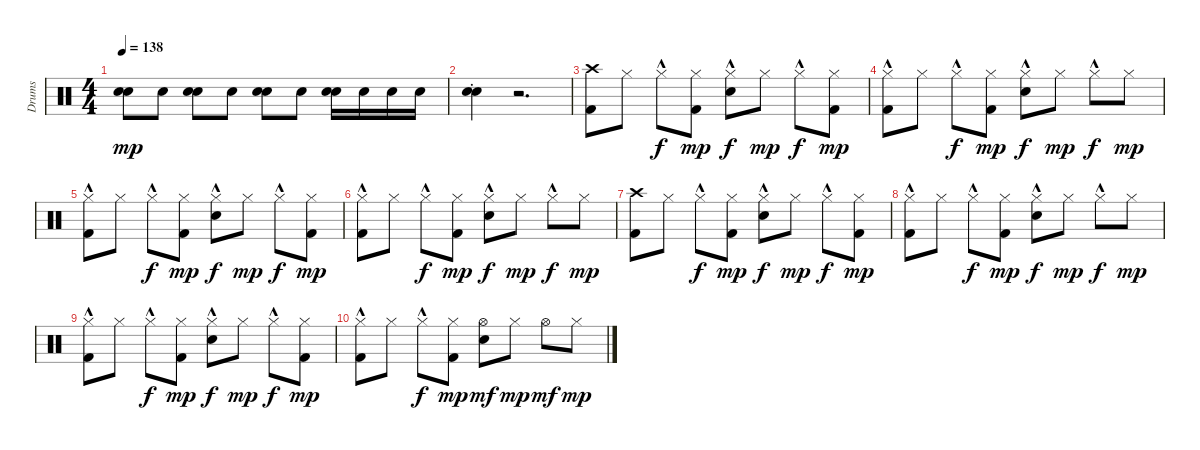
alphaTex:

\track ("Drums" "Drums") {instrument percussion}
\staff {score}
\articulation defaults
\ts (4 4)
\tempo 138
\clef neutral
\ks c
("Snare (hit) 2" "Hand Clap (hit)").8{dy mp} "Snare (hit) 2".8 ("Snare (hit) 2" "Hand Clap (hit)").8 "Snare (hit) 2".8 ("Snare (hit) 2" "Hand Clap (hit)").8 "Snare (hit) 2".8 ("Snare (hit) 2" "Hand Clap (hit)").16 "Snare (hit) 2".16 "Snare (hit) 2".16 "Snare (hit) 2".16 |
("Snare (hit) 2" "Hand Clap (hit)"{st}).4 r.2{d} |
("Crash high (hit)" "Kick (hit) 2").8 "Hi-Hat (closed)".8 "Hi-Hat (closed)"{hac}.8{dy f} ("Hi-Hat (closed)" "Kick (hit) 2").8{dy mp} ("Hi-Hat (closed)"{hac} "Hand Clap (hit)").8{dy f} "Hi-Hat (closed)".8{dy mp} "Hi-Hat (closed)"{hac}.8{dy f} ("Hi-Hat (closed)" "Kick (hit) 2").8{dy mp} |
("Hi-Hat (closed)"{hac} "Kick (hit) 2").8 "Hi-Hat (closed)".8 "Hi-Hat (closed)"{hac}.8{dy f} ("Hi-Hat (closed)" "Kick (hit) 2").8{dy mp} ("Hi-Hat (closed)"{hac} "Hand Clap (hit)").8{dy f} "Hi-Hat (closed)".8{dy mp} "Hi-Hat (closed)"{hac}.8{dy f} "Hi-Hat (closed)".8{dy mp} |
("Hi-Hat (closed)"{hac} "Kick (hit) 2").8 "Hi-Hat (closed)".8 "Hi-Hat (closed)"{hac}.8{dy f} ("Hi-Hat (closed)" "Kick (hit) 2").8{dy mp} ("Hi-Hat (closed)"{hac} "Hand Clap (hit)").8{dy f} "Hi-Hat (closed)".8{dy mp} "Hi-Hat (closed)"{hac}.8{dy f} ("Hi-Hat (closed)" "Kick (hit) 2").8{dy mp} |
("Hi-Hat (closed)"{hac} "Kick (hit) 2").8 "Hi-Hat (closed)".8 "Hi-Hat (closed)"{hac}.8{dy f} ("Hi-Hat (closed)" "Kick (hit) 2").8{dy mp} ("Hi-Hat (closed)"{hac} "Hand Clap (hit)").8{dy f} "Hi-Hat (closed)".8{dy mp} "Hi-Hat (closed)"{hac}.8{dy f} "Hi-Hat (closed)".8{dy mp} |
("Crash high (hit)" "Kick (hit) 2").8 "Hi-Hat (closed)".8 "Hi-Hat (closed)"{hac}.8{dy f} ("Hi-Hat (closed)" "Kick (hit) 2").8{dy mp} ("Hi-Hat (closed)"{hac} "Hand Clap (hit)").8{dy f} "Hi-Hat (closed)".8{dy mp} "Hi-Hat (closed)"{hac}.8{dy f} ("Hi-Hat (closed)" "Kick (hit) 2").8{dy mp} |
("Hi-Hat (closed)"{hac} "Kick (hit) 2").8 "Hi-Hat (closed)".8 "Hi-Hat (closed)"{hac}.8{dy f} ("Hi-Hat (closed)" "Kick (hit) 2").8{dy mp} ("Hi-Hat (closed)"{hac} "Hand Clap (hit)").8{dy f} "Hi-Hat (closed)".8{dy mp} "Hi-Hat (closed)"{hac}.8{dy f} "Hi-Hat (closed)".8{dy mp} |
("Hi-Hat (closed)"{hac} "Kick (hit) 2").8 "Hi-Hat (closed)".8 "Hi-Hat (closed)"{hac}.8{dy f} ("Hi-Hat (closed)" "Kick (hit) 2").8{dy mp} ("Hi-Hat (closed)"{hac} "Hand Clap (hit)").8{dy f} "Hi-Hat (closed)".8{dy mp} "Hi-Hat (closed)"{hac}.8{dy f} ("Hi-Hat (closed)" "Kick (hit) 2").8{dy mp} |
("Hi-Hat (closed)"{hac} "Kick (hit) 2").8 "Hi-Hat (closed)".8 "Hi-Hat (closed)"{hac}.8{dy f} ("Hi-Hat (closed)" "Kick (hit) 2").8{dy mp} ("Hi-Hat (open)" "Hand Clap (hit)").8{dy mf} "Hi-Hat (closed)".8{dy mp} "Hi-Hat (open)".8{dy mf} "Hi-Hat (closed)".8{dy mp}
